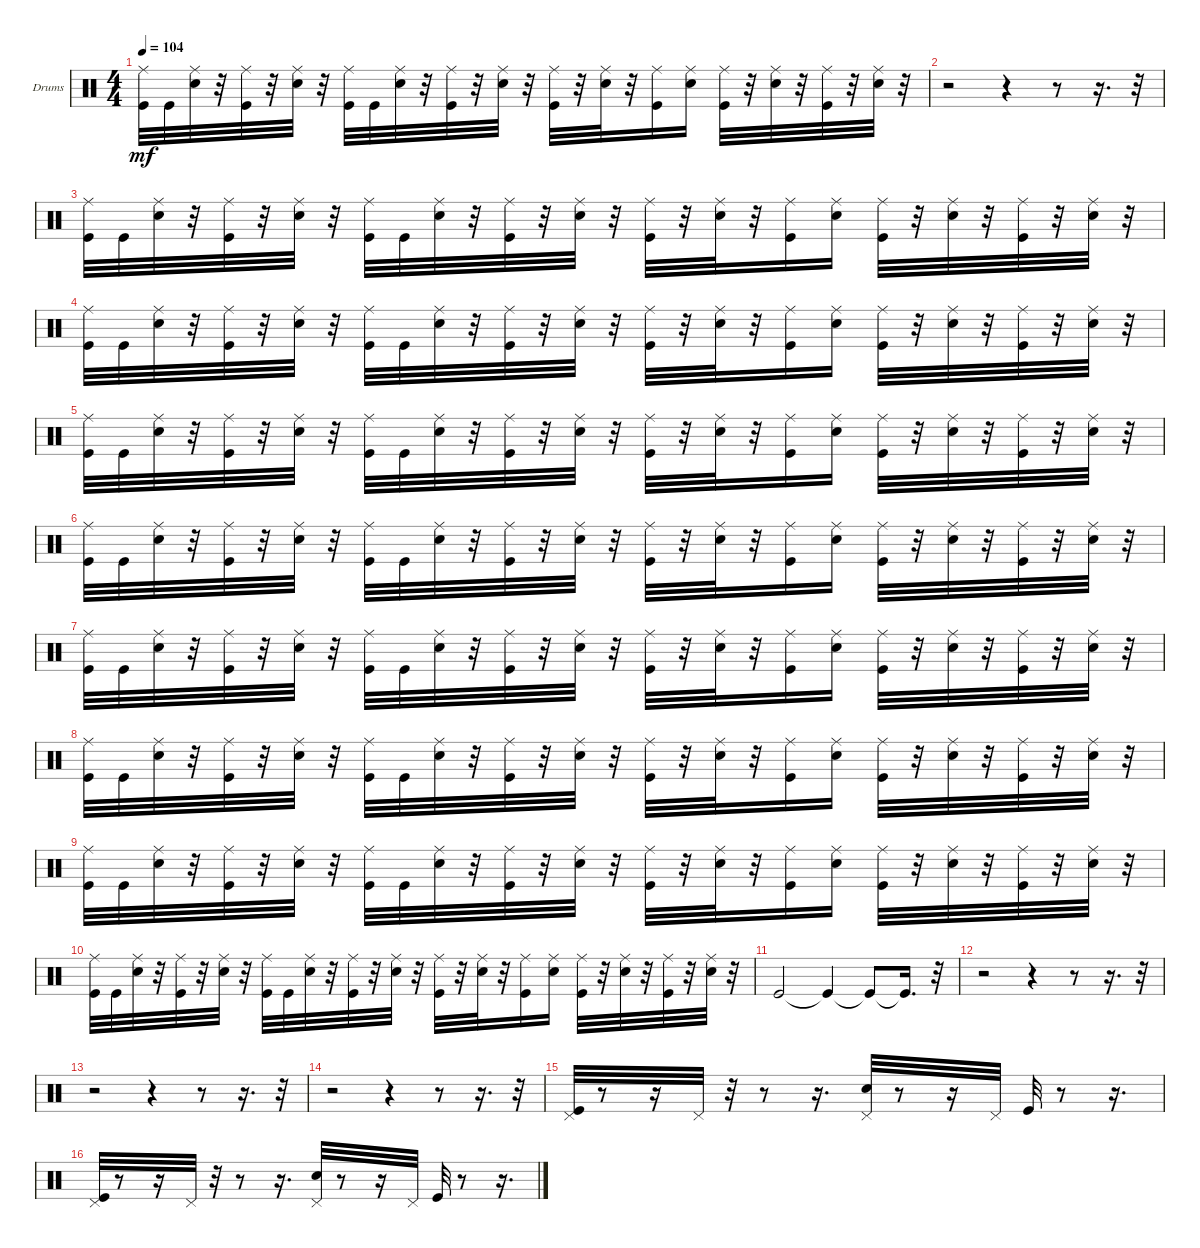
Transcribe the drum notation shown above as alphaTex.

\bracketExtendMode groupsimilarinstruments
\firstSystemTrackNameOrientation horizontal
\otherSystemsTrackNameOrientation horizontal
\track ("diviners drum" "Drums") {instrument percussion}
\staff {score}
\articulation defaults
\ts (4 4)
\tempo 104
\clef neutral
\ks c
("Kick (hit)" "Ride (middle)").32{dy mf} "Kick (hit)".32 ("Snare (hit) 2" "Ride (middle)").32 r.32 ("Kick (hit)" "Ride (middle)").32 r.32 ("Snare (hit) 2" "Ride (middle)").32 r.32 ("Kick (hit)" "Ride (middle)").32 "Kick (hit)".32 ("Snare (hit) 2" "Ride (middle)").32 r.32 ("Kick (hit)" "Ride (middle)").32 r.32 ("Snare (hit) 2" "Ride (middle)").32 r.32 ("Kick (hit)" "Ride (middle)").32 r.32 ("Snare (hit) 2" "Ride (middle)").32 r.32 ("Kick (hit)" "Ride (middle)").16 ("Snare (hit) 2" "Ride (middle)").16 ("Kick (hit)" "Ride (middle)").32 r.32 ("Snare (hit) 2" "Ride (middle)").32 r.32 ("Kick (hit)" "Ride (middle)").32 r.32 ("Snare (hit) 2" "Ride (middle)").32 r.32 |
r.2 r.4 r.8 r.16{d} r.32 |
("Kick (hit)" "Ride (middle)").32 "Kick (hit)".32 ("Snare (hit) 2" "Ride (middle)").32 r.32 ("Kick (hit)" "Ride (middle)").32 r.32 ("Snare (hit) 2" "Ride (middle)").32 r.32 ("Kick (hit)" "Ride (middle)").32 "Kick (hit)".32 ("Snare (hit) 2" "Ride (middle)").32 r.32 ("Kick (hit)" "Ride (middle)").32 r.32 ("Snare (hit) 2" "Ride (middle)").32 r.32 ("Kick (hit)" "Ride (middle)").32 r.32 ("Snare (hit) 2" "Ride (middle)").32 r.32 ("Kick (hit)" "Ride (middle)").16 ("Snare (hit) 2" "Ride (middle)").16 ("Kick (hit)" "Ride (middle)").32 r.32 ("Snare (hit) 2" "Ride (middle)").32 r.32 ("Kick (hit)" "Ride (middle)").32 r.32 ("Snare (hit) 2" "Ride (middle)").32 r.32 |
("Kick (hit)" "Ride (middle)").32 "Kick (hit)".32 ("Snare (hit) 2" "Ride (middle)").32 r.32 ("Kick (hit)" "Ride (middle)").32 r.32 ("Snare (hit) 2" "Ride (middle)").32 r.32 ("Kick (hit)" "Ride (middle)").32 "Kick (hit)".32 ("Snare (hit) 2" "Ride (middle)").32 r.32 ("Kick (hit)" "Ride (middle)").32 r.32 ("Snare (hit) 2" "Ride (middle)").32 r.32 ("Kick (hit)" "Ride (middle)").32 r.32 ("Snare (hit) 2" "Ride (middle)").32 r.32 ("Kick (hit)" "Ride (middle)").16 ("Snare (hit) 2" "Ride (middle)").16 ("Kick (hit)" "Ride (middle)").32 r.32 ("Snare (hit) 2" "Ride (middle)").32 r.32 ("Kick (hit)" "Ride (middle)").32 r.32 ("Snare (hit) 2" "Ride (middle)").32 r.32 |
("Kick (hit)" "Ride (middle)").32 "Kick (hit)".32 ("Snare (hit) 2" "Ride (middle)").32 r.32 ("Kick (hit)" "Ride (middle)").32 r.32 ("Snare (hit) 2" "Ride (middle)").32 r.32 ("Kick (hit)" "Ride (middle)").32 "Kick (hit)".32 ("Snare (hit) 2" "Ride (middle)").32 r.32 ("Kick (hit)" "Ride (middle)").32 r.32 ("Snare (hit) 2" "Ride (middle)").32 r.32 ("Kick (hit)" "Ride (middle)").32 r.32 ("Snare (hit) 2" "Ride (middle)").32 r.32 ("Kick (hit)" "Ride (middle)").16 ("Snare (hit) 2" "Ride (middle)").16 ("Kick (hit)" "Ride (middle)").32 r.32 ("Snare (hit) 2" "Ride (middle)").32 r.32 ("Kick (hit)" "Ride (middle)").32 r.32 ("Snare (hit) 2" "Ride (middle)").32 r.32 |
("Kick (hit)" "Ride (middle)").32 "Kick (hit)".32 ("Snare (hit) 2" "Ride (middle)").32 r.32 ("Kick (hit)" "Ride (middle)").32 r.32 ("Snare (hit) 2" "Ride (middle)").32 r.32 ("Kick (hit)" "Ride (middle)").32 "Kick (hit)".32 ("Snare (hit) 2" "Ride (middle)").32 r.32 ("Kick (hit)" "Ride (middle)").32 r.32 ("Snare (hit) 2" "Ride (middle)").32 r.32 ("Kick (hit)" "Ride (middle)").32 r.32 ("Snare (hit) 2" "Ride (middle)").32 r.32 ("Kick (hit)" "Ride (middle)").16 ("Snare (hit) 2" "Ride (middle)").16 ("Kick (hit)" "Ride (middle)").32 r.32 ("Snare (hit) 2" "Ride (middle)").32 r.32 ("Kick (hit)" "Ride (middle)").32 r.32 ("Snare (hit) 2" "Ride (middle)").32 r.32 |
("Kick (hit)" "Ride (middle)").32 "Kick (hit)".32 ("Snare (hit) 2" "Ride (middle)").32 r.32 ("Kick (hit)" "Ride (middle)").32 r.32 ("Snare (hit) 2" "Ride (middle)").32 r.32 ("Kick (hit)" "Ride (middle)").32 "Kick (hit)".32 ("Snare (hit) 2" "Ride (middle)").32 r.32 ("Kick (hit)" "Ride (middle)").32 r.32 ("Snare (hit) 2" "Ride (middle)").32 r.32 ("Kick (hit)" "Ride (middle)").32 r.32 ("Snare (hit) 2" "Ride (middle)").32 r.32 ("Kick (hit)" "Ride (middle)").16 ("Snare (hit) 2" "Ride (middle)").16 ("Kick (hit)" "Ride (middle)").32 r.32 ("Snare (hit) 2" "Ride (middle)").32 r.32 ("Kick (hit)" "Ride (middle)").32 r.32 ("Snare (hit) 2" "Ride (middle)").32 r.32 |
("Kick (hit)" "Ride (middle)").32 "Kick (hit)".32 ("Snare (hit) 2" "Ride (middle)").32 r.32 ("Kick (hit)" "Ride (middle)").32 r.32 ("Snare (hit) 2" "Ride (middle)").32 r.32 ("Kick (hit)" "Ride (middle)").32 "Kick (hit)".32 ("Snare (hit) 2" "Ride (middle)").32 r.32 ("Kick (hit)" "Ride (middle)").32 r.32 ("Snare (hit) 2" "Ride (middle)").32 r.32 ("Kick (hit)" "Ride (middle)").32 r.32 ("Snare (hit) 2" "Ride (middle)").32 r.32 ("Kick (hit)" "Ride (middle)").16 ("Snare (hit) 2" "Ride (middle)").16 ("Kick (hit)" "Ride (middle)").32 r.32 ("Snare (hit) 2" "Ride (middle)").32 r.32 ("Kick (hit)" "Ride (middle)").32 r.32 ("Snare (hit) 2" "Ride (middle)").32 r.32 |
("Kick (hit)" "Ride (middle)").32 "Kick (hit)".32 ("Snare (hit) 2" "Ride (middle)").32 r.32 ("Kick (hit)" "Ride (middle)").32 r.32 ("Snare (hit) 2" "Ride (middle)").32 r.32 ("Kick (hit)" "Ride (middle)").32 "Kick (hit)".32 ("Snare (hit) 2" "Ride (middle)").32 r.32 ("Kick (hit)" "Ride (middle)").32 r.32 ("Snare (hit) 2" "Ride (middle)").32 r.32 ("Kick (hit)" "Ride (middle)").32 r.32 ("Snare (hit) 2" "Ride (middle)").32 r.32 ("Kick (hit)" "Ride (middle)").16 ("Snare (hit) 2" "Ride (middle)").16 ("Kick (hit)" "Ride (middle)").32 r.32 ("Snare (hit) 2" "Ride (middle)").32 r.32 ("Kick (hit)" "Ride (middle)").32 r.32 ("Snare (hit) 2" "Ride (middle)").32 r.32 |
("Kick (hit)" "Ride (middle)").32 "Kick (hit)".32 ("Snare (hit) 2" "Ride (middle)").32 r.32 ("Kick (hit)" "Ride (middle)").32 r.32 ("Snare (hit) 2" "Ride (middle)").32 r.32 ("Kick (hit)" "Ride (middle)").32 "Kick (hit)".32 ("Snare (hit) 2" "Ride (middle)").32 r.32 ("Kick (hit)" "Ride (middle)").32 r.32 ("Snare (hit) 2" "Ride (middle)").32 r.32 ("Kick (hit)" "Ride (middle)").32 r.32 ("Snare (hit) 2" "Ride (middle)").32 r.32 ("Kick (hit)" "Ride (middle)").16 ("Snare (hit) 2" "Ride (middle)").16 ("Kick (hit)" "Ride (middle)").32 r.32 ("Snare (hit) 2" "Ride (middle)").32 r.32 ("Kick (hit)" "Ride (middle)").32 r.32 ("Snare (hit) 2" "Ride (middle)").32 r.32 |
"Kick (hit)".2 "Kick (hit)"{t}.4 "Kick (hit)"{t}.8 "Kick (hit)"{t}.16{d} r.32 |
r.2 r.4 r.8 r.16{d} r.32 |
r.2 r.4 r.8 r.16{d} r.32 |
r.2 r.4 r.8 r.16{d} r.32 |
("Kick (hit)" "Pedal Hi-Hat (hit)").32 r.8 r.16 "Pedal Hi-Hat (hit)".32 r.32 r.8 r.16{d} ("Snare (hit) 2" "Pedal Hi-Hat (hit)").32 r.8 r.16 "Pedal Hi-Hat (hit)".32 "Kick (hit)".32 r.8 r.16{d} |
("Kick (hit)" "Pedal Hi-Hat (hit)").32 r.8 r.16 "Pedal Hi-Hat (hit)".32 r.32 r.8 r.16{d} ("Snare (hit) 2" "Pedal Hi-Hat (hit)").32 r.8 r.16 "Pedal Hi-Hat (hit)".32 "Kick (hit)".32 r.8 r.16{d}
